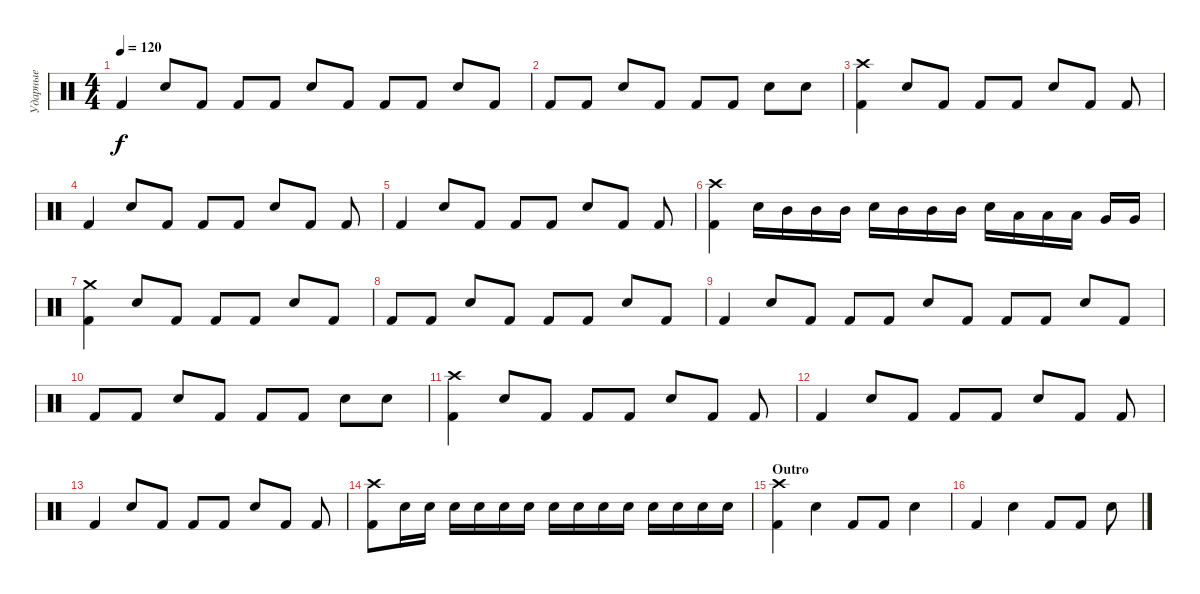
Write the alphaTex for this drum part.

\track ("Ударные" "Ударные") {instrument percussion}
\staff {score}
\articulation defaults
\ts (4 4)
\tempo 120
\clef neutral
\ks c "Kick (hit) 2".4{dy f} "Electric Snare (hit)".8 "Kick (hit) 2".8 "Kick (hit) 2".8 "Kick (hit) 2".8 "Electric Snare (hit)".8 "Kick (hit) 2".8 "Kick (hit) 2".8 "Kick (hit) 2".8 "Electric Snare (hit)".8 "Kick (hit) 2".8
|
"Kick (hit) 2".8 "Kick (hit) 2".8 "Electric Snare (hit)".8 "Kick (hit) 2".8 "Kick (hit) 2".8 "Kick (hit) 2".8 "Electric Snare (hit)".8 "Electric Snare (hit)".8 |
("Kick (hit) 2" "Crash high (hit)").4 "Electric Snare (hit)".8 "Kick (hit) 2".8 "Kick (hit) 2".8 "Kick (hit) 2".8 "Electric Snare (hit)".8 "Kick (hit) 2".8 "Kick (hit) 2".8 |
"Kick (hit) 2".4 "Electric Snare (hit)".8 "Kick (hit) 2".8 "Kick (hit) 2".8 "Kick (hit) 2".8 "Electric Snare (hit)".8 "Kick (hit) 2".8 "Kick (hit) 2".8 |
"Kick (hit) 2".4 "Electric Snare (hit)".8 "Kick (hit) 2".8 "Kick (hit) 2".8 "Kick (hit) 2".8 "Electric Snare (hit)".8 "Kick (hit) 2".8 "Kick (hit) 2".8 |
("Kick (hit) 2" "Crash high (hit)").4 "Electric Snare (hit)".16 "Mid Tom (hit)".16 "Mid Tom (hit)".16 "Mid Tom (hit)".16 "Electric Snare (hit)".16 "Mid Tom (hit)".16 "Mid Tom (hit)".16 "Mid Tom (hit)".16 "Electric Snare (hit)".16 "Low Tom (hit)".16 "Low Tom (hit)".16 "Low Tom (hit)".16 "Very Low Tom (hit)".16 "Very Low Tom (hit)".16 |
("Kick (hit) 2" "Crash medium (hit)").4 "Electric Snare (hit)".8 "Kick (hit) 2".8 "Kick (hit) 2".8 "Kick (hit) 2".8 "Electric Snare (hit)".8 "Kick (hit) 2".8 |
"Kick (hit) 2".8 "Kick (hit) 2".8 "Electric Snare (hit)".8 "Kick (hit) 2".8 "Kick (hit) 2".8 "Kick (hit) 2".8 "Electric Snare (hit)".8 "Kick (hit) 2".8 |
"Kick (hit) 2".4 "Electric Snare (hit)".8 "Kick (hit) 2".8 "Kick (hit) 2".8 "Kick (hit) 2".8 "Electric Snare (hit)".8 "Kick (hit) 2".8 "Kick (hit) 2".8 "Kick (hit) 2".8 "Electric Snare (hit)".8 "Kick (hit) 2".8 |
"Kick (hit) 2".8 "Kick (hit) 2".8 "Electric Snare (hit)".8 "Kick (hit) 2".8 "Kick (hit) 2".8 "Kick (hit) 2".8 "Electric Snare (hit)".8 "Electric Snare (hit)".8 |
("Kick (hit) 2" "Crash high (hit)").4 "Electric Snare (hit)".8 "Kick (hit) 2".8 "Kick (hit) 2".8 "Kick (hit) 2".8 "Electric Snare (hit)".8 "Kick (hit) 2".8 "Kick (hit) 2".8 |
"Kick (hit) 2".4 "Electric Snare (hit)".8 "Kick (hit) 2".8 "Kick (hit) 2".8 "Kick (hit) 2".8 "Electric Snare (hit)".8 "Kick (hit) 2".8 "Kick (hit) 2".8 |
"Kick (hit) 2".4 "Electric Snare (hit)".8 "Kick (hit) 2".8 "Kick (hit) 2".8 "Kick (hit) 2".8 "Electric Snare (hit)".8 "Kick (hit) 2".8 "Kick (hit) 2".8 |
("Kick (hit) 2" "Crash high (hit)").8 "Electric Snare (hit)".16 "Electric Snare (hit)".16 "Electric Snare (hit)".16 "Electric Snare (hit)".16 "Electric Snare (hit)".16 "Electric Snare (hit)".16 "Electric Snare (hit)".16 "Electric Snare (hit)".16 "Electric Snare (hit)".16 "Electric Snare (hit)".16 "Electric Snare (hit)".16 "Electric Snare (hit)".16 "Electric Snare (hit)".16 "Electric Snare (hit)".16 |
\section ("" "Outro")
("Kick (hit) 2" "Crash high (hit)").4 "Electric Snare (hit)".4 "Kick (hit) 2".8 "Kick (hit) 2".8 "Electric Snare (hit)".4 |
"Kick (hit) 2".4 "Electric Snare (hit)".4 "Kick (hit) 2".8 "Kick (hit) 2".8 "Electric Snare (hit)".8
